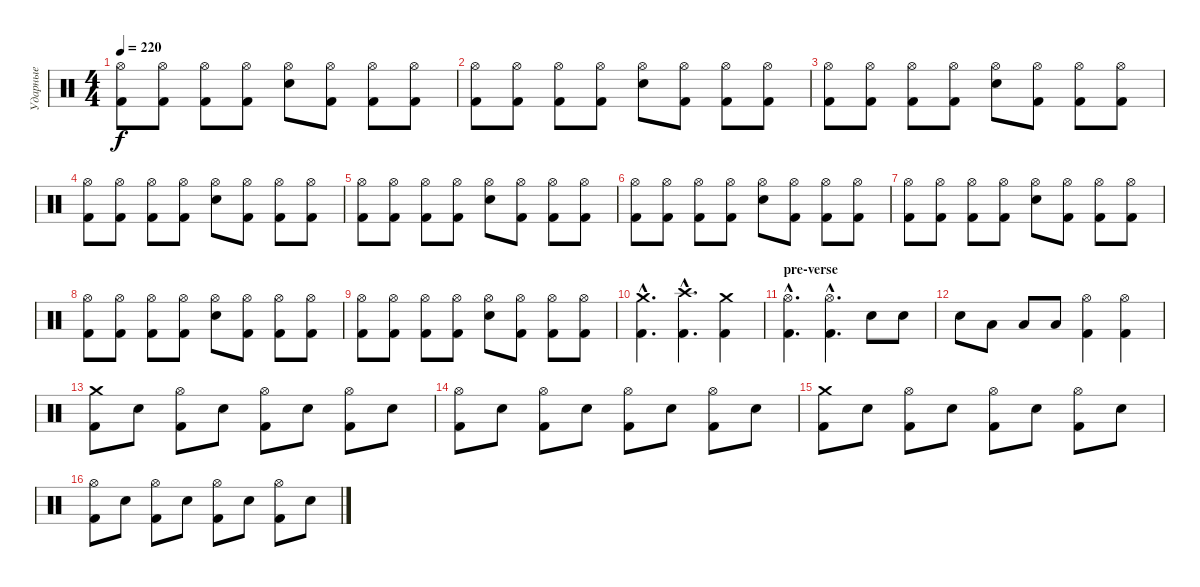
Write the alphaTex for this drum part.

\track ("Ударные" "Ударные") {instrument percussion}
\staff {score}
\articulation defaults
\ts (4 4)
\tempo 220
\clef neutral
\ks c
("Hi-Hat (open)" "Kick (hit) 2").8{dy f} ("Hi-Hat (open)" "Kick (hit) 2").8 ("Hi-Hat (open)" "Kick (hit) 2").8 ("Hi-Hat (open)" "Kick (hit) 2").8 ("Hi-Hat (open)" "Electric Snare (hit)").8 ("Hi-Hat (open)" "Kick (hit) 2").8 ("Hi-Hat (open)" "Kick (hit) 2").8 ("Hi-Hat (open)" "Kick (hit) 2").8 |
("Hi-Hat (open)" "Kick (hit) 2").8 ("Hi-Hat (open)" "Kick (hit) 2").8 ("Hi-Hat (open)" "Kick (hit) 2").8 ("Hi-Hat (open)" "Kick (hit) 2").8 ("Hi-Hat (open)" "Electric Snare (hit)").8 ("Hi-Hat (open)" "Kick (hit) 2").8 ("Hi-Hat (open)" "Kick (hit) 2").8 ("Hi-Hat (open)" "Kick (hit) 2").8 |
("Hi-Hat (open)" "Kick (hit) 2").8 ("Hi-Hat (open)" "Kick (hit) 2").8 ("Hi-Hat (open)" "Kick (hit) 2").8 ("Hi-Hat (open)" "Kick (hit) 2").8 ("Hi-Hat (open)" "Electric Snare (hit)").8 ("Hi-Hat (open)" "Kick (hit) 2").8 ("Hi-Hat (open)" "Kick (hit) 2").8 ("Hi-Hat (open)" "Kick (hit) 2").8 |
("Hi-Hat (open)" "Kick (hit) 2").8 ("Hi-Hat (open)" "Kick (hit) 2").8 ("Hi-Hat (open)" "Kick (hit) 2").8 ("Hi-Hat (open)" "Kick (hit) 2").8 ("Hi-Hat (open)" "Electric Snare (hit)").8 ("Hi-Hat (open)" "Kick (hit) 2").8 ("Hi-Hat (open)" "Kick (hit) 2").8 ("Hi-Hat (open)" "Kick (hit) 2").8 |
("Hi-Hat (open)" "Kick (hit) 2").8 ("Hi-Hat (open)" "Kick (hit) 2").8 ("Hi-Hat (open)" "Kick (hit) 2").8 ("Hi-Hat (open)" "Kick (hit) 2").8 ("Hi-Hat (open)" "Electric Snare (hit)").8 ("Hi-Hat (open)" "Kick (hit) 2").8 ("Hi-Hat (open)" "Kick (hit) 2").8 ("Hi-Hat (open)" "Kick (hit) 2").8 |
("Hi-Hat (open)" "Kick (hit) 2").8 ("Hi-Hat (open)" "Kick (hit) 2").8 ("Hi-Hat (open)" "Kick (hit) 2").8 ("Hi-Hat (open)" "Kick (hit) 2").8 ("Hi-Hat (open)" "Electric Snare (hit)").8 ("Hi-Hat (open)" "Kick (hit) 2").8 ("Hi-Hat (open)" "Kick (hit) 2").8 ("Hi-Hat (open)" "Kick (hit) 2").8 |
("Hi-Hat (open)" "Kick (hit) 2").8 ("Hi-Hat (open)" "Kick (hit) 2").8 ("Hi-Hat (open)" "Kick (hit) 2").8 ("Hi-Hat (open)" "Kick (hit) 2").8 ("Hi-Hat (open)" "Electric Snare (hit)").8 ("Hi-Hat (open)" "Kick (hit) 2").8 ("Hi-Hat (open)" "Kick (hit) 2").8 ("Hi-Hat (open)" "Kick (hit) 2").8 |
("Hi-Hat (open)" "Kick (hit) 2").8 ("Hi-Hat (open)" "Kick (hit) 2").8 ("Hi-Hat (open)" "Kick (hit) 2").8 ("Hi-Hat (open)" "Kick (hit) 2").8 ("Hi-Hat (open)" "Electric Snare (hit)").8 ("Hi-Hat (open)" "Kick (hit) 2").8 ("Hi-Hat (open)" "Kick (hit) 2").8 ("Hi-Hat (open)" "Kick (hit) 2").8 |
("Hi-Hat (open)" "Kick (hit) 2").8 ("Hi-Hat (open)" "Kick (hit) 2").8 ("Hi-Hat (open)" "Kick (hit) 2").8 ("Hi-Hat (open)" "Kick (hit) 2").8 ("Hi-Hat (open)" "Electric Snare (hit)").8 ("Hi-Hat (open)" "Kick (hit) 2").8 ("Hi-Hat (open)" "Kick (hit) 2").8 ("Hi-Hat (open)" "Kick (hit) 2").8 |
("Crash medium (hit)"{hac} "Kick (hit) 2"{hac}).4{d} ("Crash high (hit)"{hac} "Kick (hit) 2"{hac}).4{d} ("Crash medium (hit)" "Kick (hit) 2").4 |
\section ("" "pre-verse")
("Hi-Hat (open)"{hac} "Kick (hit) 2"{hac}).4{d} ("Hi-Hat (open)"{hac} "Kick (hit) 2"{hac}).4{d} "Electric Snare (hit)".8 "Electric Snare (hit)".8 |
"Electric Snare (hit)".8 "Low Tom (hit)".8 "Low Tom (hit)".8 "Low Tom (hit)".8 ("Hi-Hat (open)" "Kick (hit) 2").4 ("Hi-Hat (open)" "Kick (hit) 2").4 |
("Crash medium (hit)" "Kick (hit) 2").8 "Electric Snare (hit)".8 ("Hi-Hat (open)" "Kick (hit) 2").8 "Electric Snare (hit)".8 ("Hi-Hat (open)" "Kick (hit) 2").8 "Electric Snare (hit)".8 ("Hi-Hat (open)" "Kick (hit) 2").8 "Electric Snare (hit)".8 |
("Hi-Hat (open)" "Kick (hit) 2").8 "Electric Snare (hit)".8 ("Hi-Hat (open)" "Kick (hit) 2").8 "Electric Snare (hit)".8 ("Hi-Hat (open)" "Kick (hit) 2").8 "Electric Snare (hit)".8 ("Hi-Hat (open)" "Kick (hit) 2").8 "Electric Snare (hit)".8 |
("Crash medium (hit)" "Kick (hit) 2").8 "Electric Snare (hit)".8 ("Hi-Hat (open)" "Kick (hit) 2").8 "Electric Snare (hit)".8 ("Hi-Hat (open)" "Kick (hit) 2").8 "Electric Snare (hit)".8 ("Hi-Hat (open)" "Kick (hit) 2").8 "Electric Snare (hit)".8 |
("Hi-Hat (open)" "Kick (hit) 2").8 "Electric Snare (hit)".8 ("Hi-Hat (open)" "Kick (hit) 2").8 "Electric Snare (hit)".8 ("Hi-Hat (open)" "Kick (hit) 2").8 "Electric Snare (hit)".8 ("Hi-Hat (open)" "Kick (hit) 2").8 "Electric Snare (hit)".8
